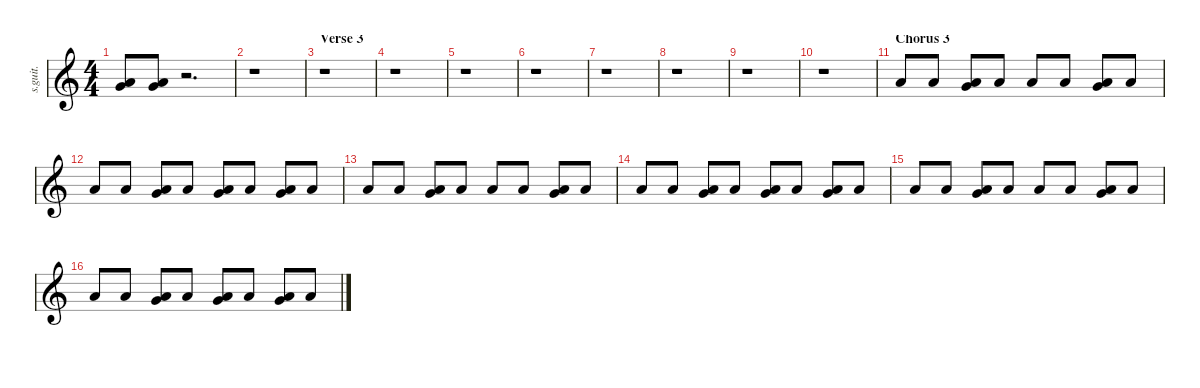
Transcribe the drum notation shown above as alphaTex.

\defaultSystemsLayout 4
\hideDynamics
\bracketExtendMode nobrackets
\track ("Chris Fehn" "s.guit.") {instrument percussion}
\staff {score}
\articulation defaults
\ts (4 4)
\tempo (205 hide)
\clef g2
\ks c
("Very Low Tom (hit)" "Low Floor Tom (hit)").8{lyrics (0 "") lyrics (1 "") lyrics (2 "") lyrics (3 "") lyrics (4 "") dy f} ("Very Low Tom (hit)" "Low Floor Tom (hit)").8{lyrics (0 "") lyrics (1 "") lyrics (2 "") lyrics (3 "") lyrics (4 "")} r.2{d} |
r.1 |
\section ("" "Verse 3")
\tempo (210 hide)
r.1 |
r.1 |
r.1 |
r.1 |
r.1 |
r.1 |
r.1 |
r.1 |
\section ("" "Chorus 3")
"Low Floor Tom (hit)".8{lyrics (0 "") lyrics (1 "") lyrics (2 "") lyrics (3 "") lyrics (4 "")} "Low Floor Tom (hit)".8{lyrics (0 "") lyrics (1 "") lyrics (2 "") lyrics (3 "") lyrics (4 "")} ("Very Low Tom (hit)" "Low Floor Tom (hit)").8{lyrics (0 "") lyrics (1 "") lyrics (2 "") lyrics (3 "") lyrics (4 "")} "Low Floor Tom (hit)".8{lyrics (0 "") lyrics (1 "") lyrics (2 "") lyrics (3 "") lyrics (4 "")} "Low Floor Tom (hit)".8{lyrics (0 "") lyrics (1 "") lyrics (2 "") lyrics (3 "") lyrics (4 "")} "Low Floor Tom (hit)".8{lyrics (0 "") lyrics (1 "") lyrics (2 "") lyrics (3 "") lyrics (4 "")} ("Very Low Tom (hit)" "Low Floor Tom (hit)").8{lyrics (0 "") lyrics (1 "") lyrics (2 "") lyrics (3 "") lyrics (4 "")} "Low Floor Tom (hit)".8{lyrics (0 "") lyrics (1 "") lyrics (2 "") lyrics (3 "") lyrics (4 "")} |
"Low Floor Tom (hit)".8{lyrics (0 "") lyrics (1 "") lyrics (2 "") lyrics (3 "") lyrics (4 "")} "Low Floor Tom (hit)".8{lyrics (0 "") lyrics (1 "") lyrics (2 "") lyrics (3 "") lyrics (4 "")} ("Very Low Tom (hit)" "Low Floor Tom (hit)").8{lyrics (0 "") lyrics (1 "") lyrics (2 "") lyrics (3 "") lyrics (4 "")} "Low Floor Tom (hit)".8{lyrics (0 "") lyrics (1 "") lyrics (2 "") lyrics (3 "") lyrics (4 "")} ("Very Low Tom (hit)" "Low Floor Tom (hit)").8{lyrics (0 "") lyrics (1 "") lyrics (2 "") lyrics (3 "") lyrics (4 "")} "Low Floor Tom (hit)".8{lyrics (0 "") lyrics (1 "") lyrics (2 "") lyrics (3 "") lyrics (4 "")} ("Very Low Tom (hit)" "Low Floor Tom (hit)").8{lyrics (0 "") lyrics (1 "") lyrics (2 "") lyrics (3 "") lyrics (4 "")} "Low Floor Tom (hit)".8{lyrics (0 "") lyrics (1 "") lyrics (2 "") lyrics (3 "") lyrics (4 "")} |
"Low Floor Tom (hit)".8{lyrics (0 "") lyrics (1 "") lyrics (2 "") lyrics (3 "") lyrics (4 "")} "Low Floor Tom (hit)".8{lyrics (0 "") lyrics (1 "") lyrics (2 "") lyrics (3 "") lyrics (4 "")} ("Very Low Tom (hit)" "Low Floor Tom (hit)").8{lyrics (0 "") lyrics (1 "") lyrics (2 "") lyrics (3 "") lyrics (4 "")} "Low Floor Tom (hit)".8{lyrics (0 "") lyrics (1 "") lyrics (2 "") lyrics (3 "") lyrics (4 "")} "Low Floor Tom (hit)".8{lyrics (0 "") lyrics (1 "") lyrics (2 "") lyrics (3 "") lyrics (4 "")} "Low Floor Tom (hit)".8{lyrics (0 "") lyrics (1 "") lyrics (2 "") lyrics (3 "") lyrics (4 "")} ("Very Low Tom (hit)" "Low Floor Tom (hit)").8{lyrics (0 "") lyrics (1 "") lyrics (2 "") lyrics (3 "") lyrics (4 "")} "Low Floor Tom (hit)".8{lyrics (0 "") lyrics (1 "") lyrics (2 "") lyrics (3 "") lyrics (4 "")} |
"Low Floor Tom (hit)".8{lyrics (0 "") lyrics (1 "") lyrics (2 "") lyrics (3 "") lyrics (4 "")} "Low Floor Tom (hit)".8{lyrics (0 "") lyrics (1 "") lyrics (2 "") lyrics (3 "") lyrics (4 "")} ("Very Low Tom (hit)" "Low Floor Tom (hit)").8{lyrics (0 "") lyrics (1 "") lyrics (2 "") lyrics (3 "") lyrics (4 "")} "Low Floor Tom (hit)".8{lyrics (0 "") lyrics (1 "") lyrics (2 "") lyrics (3 "") lyrics (4 "")} ("Very Low Tom (hit)" "Low Floor Tom (hit)").8{lyrics (0 "") lyrics (1 "") lyrics (2 "") lyrics (3 "") lyrics (4 "")} "Low Floor Tom (hit)".8{lyrics (0 "") lyrics (1 "") lyrics (2 "") lyrics (3 "") lyrics (4 "")} ("Very Low Tom (hit)" "Low Floor Tom (hit)").8{lyrics (0 "") lyrics (1 "") lyrics (2 "") lyrics (3 "") lyrics (4 "")} "Low Floor Tom (hit)".8{lyrics (0 "") lyrics (1 "") lyrics (2 "") lyrics (3 "") lyrics (4 "")} |
"Low Floor Tom (hit)".8{lyrics (0 "") lyrics (1 "") lyrics (2 "") lyrics (3 "") lyrics (4 "")} "Low Floor Tom (hit)".8{lyrics (0 "") lyrics (1 "") lyrics (2 "") lyrics (3 "") lyrics (4 "")} ("Very Low Tom (hit)" "Low Floor Tom (hit)").8{lyrics (0 "") lyrics (1 "") lyrics (2 "") lyrics (3 "") lyrics (4 "")} "Low Floor Tom (hit)".8{lyrics (0 "") lyrics (1 "") lyrics (2 "") lyrics (3 "") lyrics (4 "")} "Low Floor Tom (hit)".8{lyrics (0 "") lyrics (1 "") lyrics (2 "") lyrics (3 "") lyrics (4 "")} "Low Floor Tom (hit)".8{lyrics (0 "") lyrics (1 "") lyrics (2 "") lyrics (3 "") lyrics (4 "")} ("Very Low Tom (hit)" "Low Floor Tom (hit)").8{lyrics (0 "") lyrics (1 "") lyrics (2 "") lyrics (3 "") lyrics (4 "")} "Low Floor Tom (hit)".8{lyrics (0 "") lyrics (1 "") lyrics (2 "") lyrics (3 "") lyrics (4 "")} |
"Low Floor Tom (hit)".8{lyrics (0 "") lyrics (1 "") lyrics (2 "") lyrics (3 "") lyrics (4 "")} "Low Floor Tom (hit)".8{lyrics (0 "") lyrics (1 "") lyrics (2 "") lyrics (3 "") lyrics (4 "")} ("Very Low Tom (hit)" "Low Floor Tom (hit)").8{lyrics (0 "") lyrics (1 "") lyrics (2 "") lyrics (3 "") lyrics (4 "")} "Low Floor Tom (hit)".8{lyrics (0 "") lyrics (1 "") lyrics (2 "") lyrics (3 "") lyrics (4 "")} ("Very Low Tom (hit)" "Low Floor Tom (hit)").8{lyrics (0 "") lyrics (1 "") lyrics (2 "") lyrics (3 "") lyrics (4 "")} "Low Floor Tom (hit)".8{lyrics (0 "") lyrics (1 "") lyrics (2 "") lyrics (3 "") lyrics (4 "")} ("Very Low Tom (hit)" "Low Floor Tom (hit)").8{lyrics (0 "") lyrics (1 "") lyrics (2 "") lyrics (3 "") lyrics (4 "")} "Low Floor Tom (hit)".8{lyrics (0 "") lyrics (1 "") lyrics (2 "") lyrics (3 "") lyrics (4 "")}
